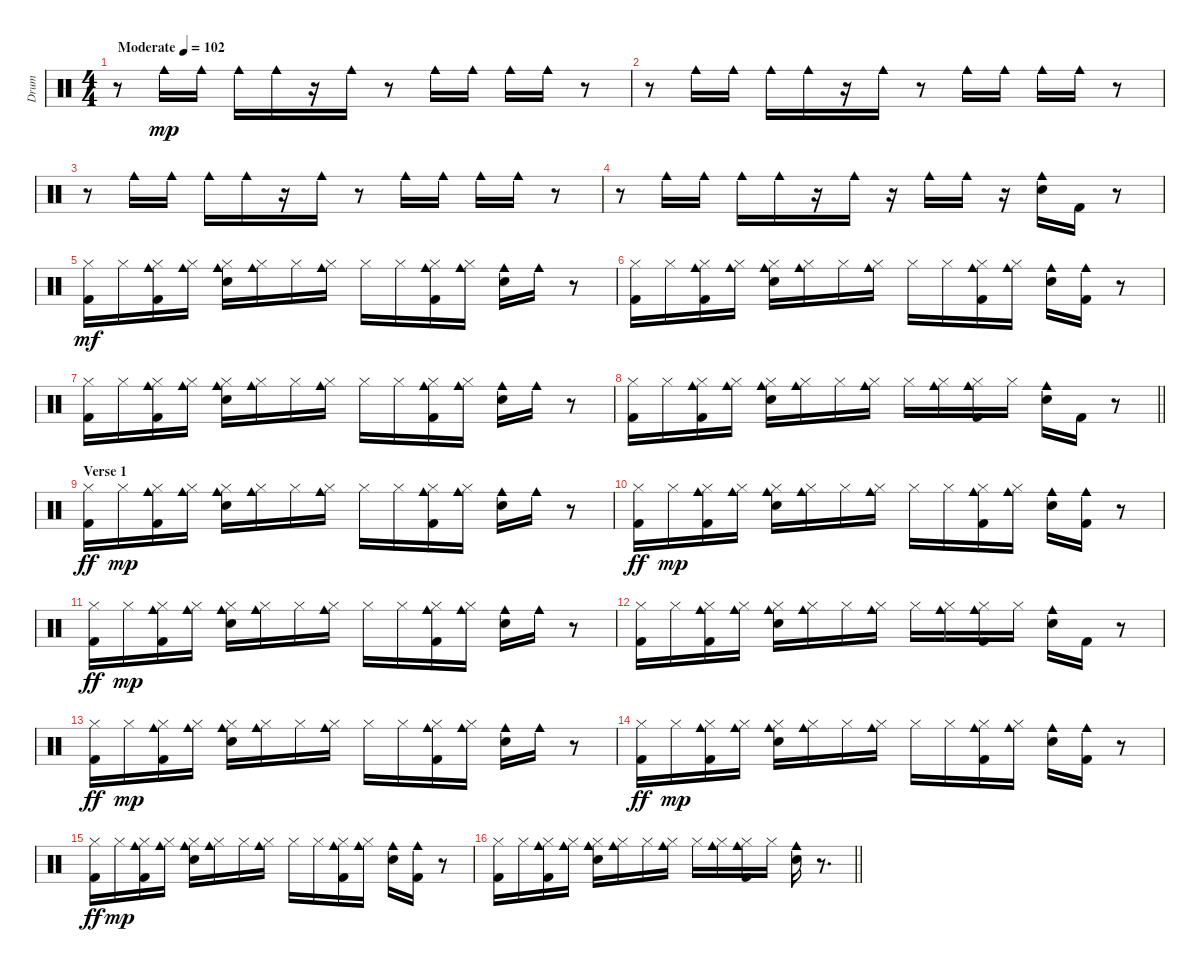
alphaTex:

\track ("Drum" "Drum") {instrument percussion}
\staff {score}
\articulation defaults
\ts (4 4)
\tempo (102 "Moderate")
\clef neutral
\ks c
r.8{dy mp} "Cowbell medium (hit)".16 "Cowbell medium (hit)".16 "Cowbell medium (hit)".16 "Cowbell medium (hit)".16 r.16 "Cowbell medium (hit)".16 r.8 "Cowbell medium (hit)".16 "Cowbell medium (hit)".16 "Cowbell medium (hit)".16 "Cowbell medium (hit)".16 r.8 |
r.8 "Cowbell medium (hit)".16{volume 12} "Cowbell medium (hit)".16 "Cowbell medium (hit)".16 "Cowbell medium (hit)".16 r.16 "Cowbell medium (hit)".16 r.8 "Cowbell medium (hit)".16 "Cowbell medium (hit)".16 "Cowbell medium (hit)".16 "Cowbell medium (hit)".16 r.8 |
r.8 "Cowbell medium (hit)".16{volume 12} "Cowbell medium (hit)".16 "Cowbell medium (hit)".16 "Cowbell medium (hit)".16 r.16 "Cowbell medium (hit)".16 r.8 "Cowbell medium (hit)".16 "Cowbell medium (hit)".16 "Cowbell medium (hit)".16 "Cowbell medium (hit)".16 r.8 |
r.8 "Cowbell medium (hit)".16{volume 12} "Cowbell medium (hit)".16 "Cowbell medium (hit)".16 "Cowbell medium (hit)".16 r.16 "Cowbell medium (hit)".16 r.16 "Cowbell medium (hit)".16 "Cowbell medium (hit)".16 r.16 ("Cowbell medium (hit)" "Electric Snare (hit)").16 "Kick (hit) 2".16 r.8 |
("Hi-Hat (closed)" "Kick (hit) 2").16{dy mf volume 12} "Hi-Hat (closed)".16 ("Hi-Hat (closed)" "Kick (hit) 2" "Cowbell medium (hit)").16 ("Hi-Hat (closed)" "Cowbell medium (hit)").16 ("Electric Snare (hit)" "Hi-Hat (closed)" "Cowbell medium (hit)").16 ("Hi-Hat (closed)" "Cowbell medium (hit)").16 "Hi-Hat (closed)".16 ("Hi-Hat (closed)" "Cowbell medium (hit)").16 "Hi-Hat (closed)".16 "Hi-Hat (closed)".16 ("Hi-Hat (closed)" "Kick (hit) 2" "Cowbell medium (hit)").16 ("Hi-Hat (closed)" "Cowbell medium (hit)").16 ("Electric Snare (hit)" "Cowbell medium (hit)").16 "Cowbell medium (hit)".16 r.8 |
("Hi-Hat (closed)" "Kick (hit) 2").16{volume 12} "Hi-Hat (closed)".16 ("Hi-Hat (closed)" "Kick (hit) 2" "Cowbell medium (hit)").16 ("Hi-Hat (closed)" "Cowbell medium (hit)").16 ("Electric Snare (hit)" "Hi-Hat (closed)" "Cowbell medium (hit)").16 ("Hi-Hat (closed)" "Cowbell medium (hit)").16 "Hi-Hat (closed)".16 ("Hi-Hat (closed)" "Cowbell medium (hit)").16 "Hi-Hat (closed)".16 "Hi-Hat (closed)".16 ("Hi-Hat (closed)" "Kick (hit) 2" "Cowbell medium (hit)").16 ("Hi-Hat (closed)" "Cowbell medium (hit)").16 ("Electric Snare (hit)" "Cowbell medium (hit)").16 ("Cowbell medium (hit)" "Kick (hit) 2").16 r.8 |
("Hi-Hat (closed)" "Kick (hit) 2").16{volume 12} "Hi-Hat (closed)".16 ("Hi-Hat (closed)" "Kick (hit) 2" "Cowbell medium (hit)").16 ("Hi-Hat (closed)" "Cowbell medium (hit)").16 ("Electric Snare (hit)" "Hi-Hat (closed)" "Cowbell medium (hit)").16 ("Hi-Hat (closed)" "Cowbell medium (hit)").16 "Hi-Hat (closed)".16 ("Hi-Hat (closed)" "Cowbell medium (hit)").16 "Hi-Hat (closed)".16 "Hi-Hat (closed)".16 ("Hi-Hat (closed)" "Kick (hit) 2" "Cowbell medium (hit)").16 ("Hi-Hat (closed)" "Cowbell medium (hit)").16 ("Electric Snare (hit)" "Cowbell medium (hit)").16 "Cowbell medium (hit)".16 r.8 |
\barLineRight lightlight
("Kick (hit) 2" "Hi-Hat (closed)").16{volume 12} "Hi-Hat (closed)".16 ("Kick (hit) 2" "Hi-Hat (closed)" "Cowbell medium (hit)").16 ("Hi-Hat (closed)" "Cowbell medium (hit)").16 ("Electric Snare (hit)" "Hi-Hat (closed)" "Cowbell medium (hit)").16 ("Hi-Hat (closed)" "Cowbell medium (hit)").16 "Hi-Hat (closed)".16 ("Hi-Hat (closed)" "Cowbell medium (hit)").16 "Hi-Hat (closed)".16 ("Hi-Hat (closed)" "Cowbell medium (hit)").16 ("Hi-Hat (closed)" "Kick (hit) 2" "Cowbell medium (hit)").16 "Hi-Hat (closed)".16 ("Electric Snare (hit)" "Cowbell medium (hit)").16 "Kick (hit) 2".16 r.8 |
\section ("" "Verse 1")
("Hi-Hat (closed)" "Kick (hit) 2").16{dy ff volume 12} "Hi-Hat (closed)".16{dy mp} ("Hi-Hat (closed)" "Kick (hit) 2" "Cowbell medium (hit)").16 ("Hi-Hat (closed)" "Cowbell medium (hit)").16 ("Electric Snare (hit)" "Hi-Hat (closed)" "Cowbell medium (hit)").16 ("Hi-Hat (closed)" "Cowbell medium (hit)").16 "Hi-Hat (closed)".16 ("Hi-Hat (closed)" "Cowbell medium (hit)").16 "Hi-Hat (closed)".16 "Hi-Hat (closed)".16 ("Hi-Hat (closed)" "Kick (hit) 2" "Cowbell medium (hit)").16 ("Hi-Hat (closed)" "Cowbell medium (hit)").16 ("Electric Snare (hit)" "Cowbell medium (hit)").16 "Cowbell medium (hit)".16 r.8 |
("Hi-Hat (closed)" "Kick (hit) 2").16{dy ff volume 12} "Hi-Hat (closed)".16{dy mp} ("Hi-Hat (closed)" "Kick (hit) 2" "Cowbell medium (hit)").16 ("Hi-Hat (closed)" "Cowbell medium (hit)").16 ("Electric Snare (hit)" "Hi-Hat (closed)" "Cowbell medium (hit)").16 ("Hi-Hat (closed)" "Cowbell medium (hit)").16 "Hi-Hat (closed)".16 ("Hi-Hat (closed)" "Cowbell medium (hit)").16 "Hi-Hat (closed)".16 "Hi-Hat (closed)".16 ("Hi-Hat (closed)" "Kick (hit) 2" "Cowbell medium (hit)").16 ("Hi-Hat (closed)" "Cowbell medium (hit)").16 ("Electric Snare (hit)" "Cowbell medium (hit)").16 ("Cowbell medium (hit)" "Kick (hit) 2").16 r.8 |
("Hi-Hat (closed)" "Kick (hit) 2").16{dy ff volume 12} "Hi-Hat (closed)".16{dy mp} ("Hi-Hat (closed)" "Kick (hit) 2" "Cowbell medium (hit)").16 ("Hi-Hat (closed)" "Cowbell medium (hit)").16 ("Electric Snare (hit)" "Hi-Hat (closed)" "Cowbell medium (hit)").16 ("Hi-Hat (closed)" "Cowbell medium (hit)").16 "Hi-Hat (closed)".16 ("Hi-Hat (closed)" "Cowbell medium (hit)").16 "Hi-Hat (closed)".16 "Hi-Hat (closed)".16 ("Hi-Hat (closed)" "Kick (hit) 2" "Cowbell medium (hit)").16 ("Hi-Hat (closed)" "Cowbell medium (hit)").16 ("Electric Snare (hit)" "Cowbell medium (hit)").16 "Cowbell medium (hit)".16 r.8 |
("Kick (hit) 2" "Hi-Hat (closed)").16{volume 12} "Hi-Hat (closed)".16 ("Kick (hit) 2" "Hi-Hat (closed)" "Cowbell medium (hit)").16 ("Hi-Hat (closed)" "Cowbell medium (hit)").16 ("Electric Snare (hit)" "Hi-Hat (closed)" "Cowbell medium (hit)").16 ("Hi-Hat (closed)" "Cowbell medium (hit)").16 "Hi-Hat (closed)".16 ("Hi-Hat (closed)" "Cowbell medium (hit)").16 "Hi-Hat (closed)".16 ("Hi-Hat (closed)" "Cowbell medium (hit)").16 ("Hi-Hat (closed)" "Kick (hit) 2" "Cowbell medium (hit)").16 "Hi-Hat (closed)".16 ("Electric Snare (hit)" "Cowbell medium (hit)").16 "Kick (hit) 2".16 r.8 |
("Hi-Hat (closed)" "Kick (hit) 2").16{dy ff volume 12} "Hi-Hat (closed)".16{dy mp} ("Hi-Hat (closed)" "Kick (hit) 2" "Cowbell medium (hit)").16 ("Hi-Hat (closed)" "Cowbell medium (hit)").16 ("Electric Snare (hit)" "Hi-Hat (closed)" "Cowbell medium (hit)").16 ("Hi-Hat (closed)" "Cowbell medium (hit)").16 "Hi-Hat (closed)".16 ("Hi-Hat (closed)" "Cowbell medium (hit)").16 "Hi-Hat (closed)".16 "Hi-Hat (closed)".16 ("Hi-Hat (closed)" "Kick (hit) 2" "Cowbell medium (hit)").16 ("Hi-Hat (closed)" "Cowbell medium (hit)").16 ("Electric Snare (hit)" "Cowbell medium (hit)").16 "Cowbell medium (hit)".16 r.8 |
("Hi-Hat (closed)" "Kick (hit) 2").16{dy ff volume 12} "Hi-Hat (closed)".16{dy mp} ("Hi-Hat (closed)" "Kick (hit) 2" "Cowbell medium (hit)").16 ("Hi-Hat (closed)" "Cowbell medium (hit)").16 ("Electric Snare (hit)" "Hi-Hat (closed)" "Cowbell medium (hit)").16 ("Hi-Hat (closed)" "Cowbell medium (hit)").16 "Hi-Hat (closed)".16 ("Hi-Hat (closed)" "Cowbell medium (hit)").16 "Hi-Hat (closed)".16 "Hi-Hat (closed)".16 ("Hi-Hat (closed)" "Kick (hit) 2" "Cowbell medium (hit)").16 ("Hi-Hat (closed)" "Cowbell medium (hit)").16 ("Electric Snare (hit)" "Cowbell medium (hit)").16 ("Cowbell medium (hit)" "Kick (hit) 2").16 r.8 |
("Hi-Hat (closed)" "Kick (hit) 2").16{dy ff volume 12} "Hi-Hat (closed)".16{dy mp} ("Hi-Hat (closed)" "Kick (hit) 2" "Cowbell medium (hit)").16 ("Hi-Hat (closed)" "Cowbell medium (hit)").16 ("Electric Snare (hit)" "Hi-Hat (closed)" "Cowbell medium (hit)").16 ("Hi-Hat (closed)" "Cowbell medium (hit)").16 "Hi-Hat (closed)".16 ("Hi-Hat (closed)" "Cowbell medium (hit)").16 "Hi-Hat (closed)".16 "Hi-Hat (closed)".16 ("Hi-Hat (closed)" "Kick (hit) 2" "Cowbell medium (hit)").16 ("Hi-Hat (closed)" "Cowbell medium (hit)").16 ("Electric Snare (hit)" "Cowbell medium (hit)").16 ("Cowbell medium (hit)" "Kick (hit) 2").16 r.8 |
\barLineRight lightlight
("Kick (hit) 2" "Hi-Hat (closed)").16{volume 12} "Hi-Hat (closed)".16 ("Kick (hit) 2" "Hi-Hat (closed)" "Cowbell medium (hit)").16 ("Hi-Hat (closed)" "Cowbell medium (hit)").16 ("Electric Snare (hit)" "Hi-Hat (closed)" "Cowbell medium (hit)").16 ("Hi-Hat (closed)" "Cowbell medium (hit)").16 "Hi-Hat (closed)".16 ("Hi-Hat (closed)" "Cowbell medium (hit)").16 "Hi-Hat (closed)".16 ("Hi-Hat (closed)" "Cowbell medium (hit)").16 ("Hi-Hat (closed)" "Kick (hit) 2" "Cowbell medium (hit)").16 "Hi-Hat (closed)".16 ("Electric Snare (hit)" "Cowbell medium (hit)").16 r.8{d}
